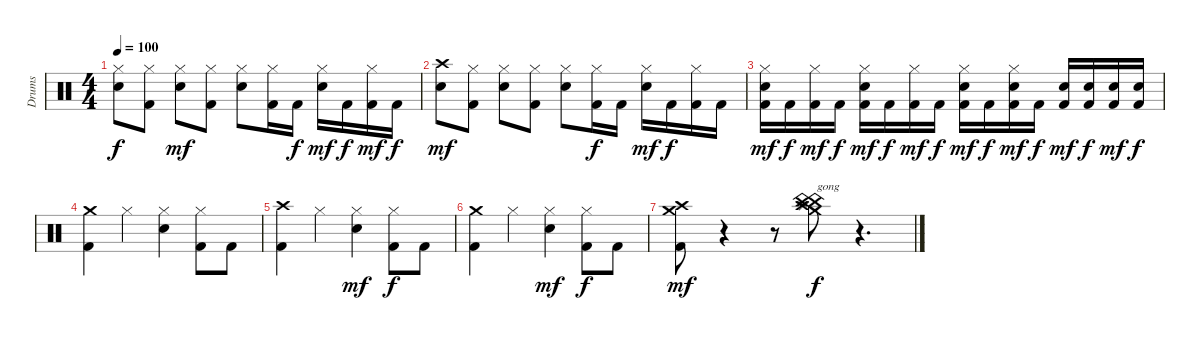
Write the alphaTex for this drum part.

\track ("Drums" "Drums") {instrument percussion}
\staff {score}
\articulation defaults
\ts (4 4)
\tempo 100
\clef neutral
\ks c
("Hi-Hat (closed)" "Snare (hit) 2").8{dy f} ("Hi-Hat (closed)" "Kick (hit) 2").8 ("Hi-Hat (closed)" "Snare (hit) 2").8{dy mf} ("Hi-Hat (closed)" "Kick (hit) 2").8 ("Hi-Hat (closed)" "Snare (hit) 2").8 ("Hi-Hat (closed)" "Kick (hit) 2").16 "Kick (hit) 2".16{dy f} ("Hi-Hat (closed)" "Snare (hit) 2").16{dy mf} "Kick (hit) 2".16{dy f} ("Hi-Hat (closed)" "Kick (hit) 2").16{dy mf} "Kick (hit) 2".16{dy f} |
("Crash high (hit)" "Snare (hit) 2").8{dy mf} ("Hi-Hat (closed)" "Kick (hit) 2").8 ("Hi-Hat (closed)" "Snare (hit) 2").8 ("Hi-Hat (closed)" "Kick (hit) 2").8 ("Hi-Hat (closed)" "Snare (hit) 2").8 ("Hi-Hat (closed)" "Kick (hit) 2").16{dy f} "Kick (hit) 2".16 ("Hi-Hat (closed)" "Snare (hit) 2").16{dy mf} "Kick (hit) 2".16{dy f} ("Hi-Hat (closed)" "Kick (hit) 2").16 "Kick (hit) 2".16 |
("Hi-Hat (closed)" "Snare (hit) 2" "Kick (hit) 2").16{dy mf} "Kick (hit) 2".16{dy f} ("Hi-Hat (closed)" "Kick (hit) 2").16{dy mf} "Kick (hit) 2".16{dy f} ("Hi-Hat (closed)" "Snare (hit) 2" "Kick (hit) 2").16{dy mf} "Kick (hit) 2".16{dy f} ("Hi-Hat (closed)" "Kick (hit) 2").16{dy mf} "Kick (hit) 2".16{dy f} ("Hi-Hat (closed)" "Snare (hit) 2" "Kick (hit) 2").16{dy mf} "Kick (hit) 2".16{dy f} ("Hi-Hat (closed)" "Snare (hit) 2" "Kick (hit) 2").16{dy mf} "Kick (hit) 2".16{dy f} ("Snare (hit) 2" "Kick (hit) 2").16{dy mf} ("Snare (hit) 2" "Kick (hit) 2").16{dy f} ("Snare (hit) 2" "Kick (hit) 2").16{dy mf} ("Snare (hit) 2" "Kick (hit) 2").16{dy f} |
("Crash medium (hit)" "Kick (hit) 2").4 "Hi-Hat (closed)".4 ("Hi-Hat (closed)" "Snare (hit) 2").4 ("Hi-Hat (closed)" "Kick (hit) 2").8 "Kick (hit) 2".8 |
("Crash high (hit)" "Kick (hit) 2").4 "Hi-Hat (closed)".4 ("Hi-Hat (closed)" "Snare (hit) 2").4{dy mf} ("Hi-Hat (closed)" "Kick (hit) 2").8{dy f} "Kick (hit) 2".8 |
("Crash medium (hit)" "Kick (hit) 2").4 "Hi-Hat (closed)".4 ("Hi-Hat (closed)" "Snare (hit) 2").4{dy mf} ("Hi-Hat (closed)" "Kick (hit) 2").8{dy f} "Kick (hit) 2".8 |
("Crash high (hit)" "Crash medium (hit)" "Kick (hit) 2").8{dy mf} r.4 r.8 ("China (hit)" "China (hit)" "Splash (hit)" "Crash medium (hit)" "Crash high (hit)").8{txt "gong" dy f} r.4{d}
